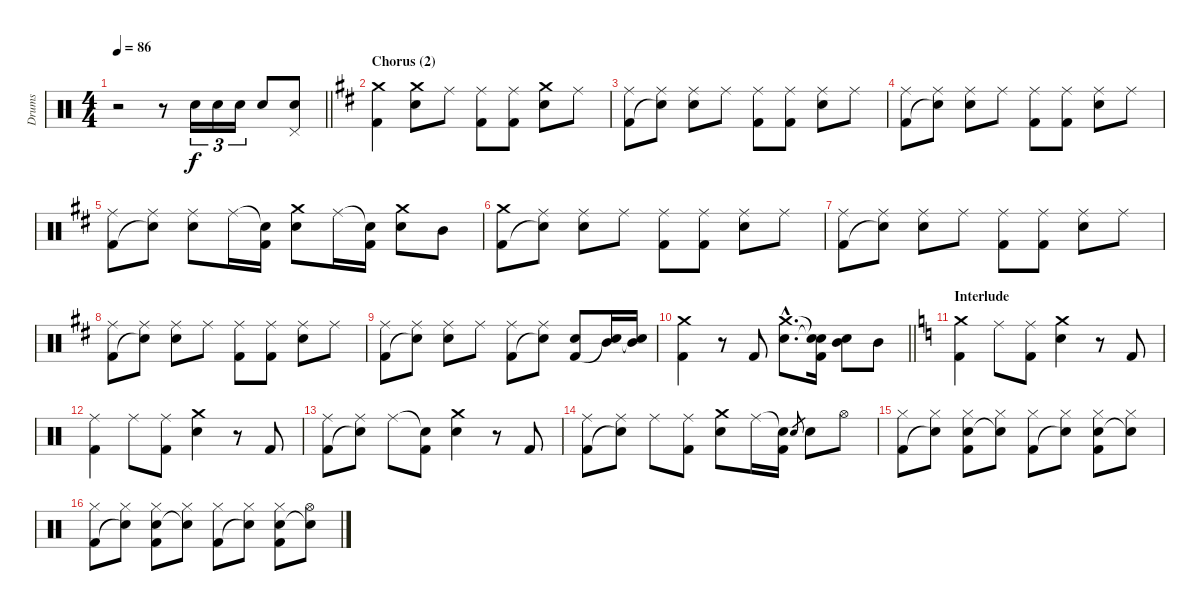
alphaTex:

\track ("Drums" "Drums") {instrument percussion}
\staff {score}
\articulation defaults
\ts (4 4)
\tempo 86
\clef neutral
\barLineRight lightlight
\ks aminor
r.2{dy f} r.8 "Electric Snare (hit)".16{tu (3 2)} "Electric Snare (hit)".16{tu (3 2)} "Electric Snare (hit)".16{tu (3 2)} "Electric Snare (hit)".8 ("Pedal Hi-Hat (hit)" "Snare (hit)"{t}).8 |
\section ("" "Chorus (2)")
\ks bminor
("Crash medium (hit)" "Kick (hit) 2").4 ("Crash medium (hit)" "Electric Snare (hit)").8 "Ride (middle)".8 ("Ride (middle)" "Kick (hit) 2").8 ("Ride (middle)" "Kick (hit) 2").8 ("Crash medium (hit)" "Electric Snare (hit)").8 "Ride (middle)".8 |
("Ride (middle)" "Kick (hit) 2").8 ("Ride (middle)" "Snare (hit)"{t}).8 ("Ride (middle)" "Electric Snare (hit)").8 "Ride (middle)".8 ("Ride (middle)" "Kick (hit) 2").8 ("Ride (middle)" "Kick (hit) 2").8 ("Ride (middle)" "Electric Snare (hit)").8 "Ride (middle)".8 |
("Ride (middle)" "Kick (hit) 2").8 ("Ride (middle)" "Snare (hit)"{t}).8 ("Ride (middle)" "Electric Snare (hit)").8 "Ride (middle)".8 ("Ride (middle)" "Kick (hit) 2").8 ("Ride (middle)" "Kick (hit) 2").8 ("Ride (middle)" "Electric Snare (hit)").8 "Ride (middle)".8 |
("Ride (middle)" "Kick (hit) 2").8 ("Ride (middle)" "Snare (hit)"{t}).8 ("Ride (middle)" "Electric Snare (hit)").8 "Ride (middle)".16 ("Snare (hit)"{t} "Kick (hit) 2").16 ("Crash medium (hit)" "Electric Snare (hit)").8 "Ride (middle)".16 ("Snare (hit)"{t} "Kick (hit) 2").16 ("Crash medium (hit)" "Electric Snare (hit)").8 "Mid Tom (hit)".8 |
("Crash medium (hit)" "Kick (hit) 2").8 ("Ride (middle)" "Snare (hit)"{t}).8 ("Ride (middle)" "Electric Snare (hit)").8 "Ride (middle)".8 ("Ride (middle)" "Kick (hit) 2").8 ("Ride (middle)" "Kick (hit) 2").8 ("Ride (middle)" "Electric Snare (hit)").8 "Ride (middle)".8 |
("Ride (middle)" "Kick (hit) 2").8 ("Ride (middle)" "Snare (hit)"{t}).8 ("Ride (middle)" "Electric Snare (hit)").8 "Ride (middle)".8 ("Ride (middle)" "Kick (hit) 2").8 ("Ride (middle)" "Kick (hit) 2").8 ("Ride (middle)" "Electric Snare (hit)").8 "Ride (middle)".8 |
("Ride (middle)" "Kick (hit) 2").8 ("Ride (middle)" "Snare (hit)"{t}).8 ("Ride (middle)" "Electric Snare (hit)").8 "Ride (middle)".8 ("Ride (middle)" "Kick (hit) 2").8 ("Ride (middle)" "Kick (hit) 2").8 ("Ride (middle)" "Electric Snare (hit)").8 "Ride (middle)".8 |
("Ride (middle)" "Kick (hit) 2").8 ("Ride (middle)" "Snare (hit)"{t}).8 ("Ride (middle)" "Electric Snare (hit)").8 "Ride (middle)".8 ("Ride (middle)" "Kick (hit) 2").8 ("Ride (middle)" "Snare (hit)"{t}).8 ("Electric Snare (hit)" "Kick (hit) 2").8 ("Mid Tom (hit)" "Snare (hit)"{t}).16 ("Mid Tom (hit)" "Snare (hit)"{t}).16 |
\barLineRight lightlight
("Crash medium (hit)" "Kick (hit) 2").4 r.8 "Kick (hit) 2".8 ("Crash medium (hit)"{hac} "Electric Snare (hit)"{hac}).8{d} ("Snare (hit)"{t} "Snare (hit)"{t} "Kick (hit) 2").16 ("Electric Snare (hit)" "Mid Tom (hit)").8 "Mid Tom (hit)".8 |
\section ("" "Interlude")
\ks aminor
("Crash medium (hit)" "Kick (hit) 2").4 "Ride (middle)".8 ("Ride (middle)" "Kick (hit) 2").8 ("Crash medium (hit)" "Electric Snare (hit)").4 r.8 "Kick (hit) 2".8 |
("Ride (middle)" "Kick (hit) 2").4 "Ride (middle)".8 ("Ride (middle)" "Kick (hit) 2").8 ("Crash medium (hit)" "Electric Snare (hit)").4 r.8 "Kick (hit) 2".8 |
("Ride (middle)" "Kick (hit) 2").8 ("Ride (middle)" "Snare (hit)"{t}).8 "Ride (middle)".8 ("Snare (hit)"{t} "Kick (hit) 2").8 ("Crash medium (hit)" "Electric Snare (hit)").4 r.8 "Kick (hit) 2".8 |
("Ride (middle)" "Kick (hit) 2").8 ("Ride (middle)" "Snare (hit)"{t}).8 "Ride (middle)".8 ("Ride (middle)" "Kick (hit) 2").8 ("Crash medium (hit)" "Electric Snare (hit)").8 "Ride (middle)".16 ("Snare (hit)"{t} "Kick (hit) 2").16 "Electric Snare (hit)".8{gr} "Electric Snare (hit)".8 "Hi-Hat (open)".8 |
("Hi-Hat (closed)" "Kick (hit) 2").8 ("Hi-Hat (closed)" "Snare (hit)"{t}).8 ("Hi-Hat (closed)" "Electric Snare (hit)" "Kick (hit) 2").8 ("Hi-Hat (closed)" "Snare (hit)"{t}).8 ("Hi-Hat (closed)" "Kick (hit) 2").8 ("Hi-Hat (closed)" "Snare (hit)"{t}).8 ("Hi-Hat (closed)" "Electric Snare (hit)" "Kick (hit) 2").8 ("Hi-Hat (closed)" "Snare (hit)"{t}).8 |
("Hi-Hat (closed)" "Kick (hit) 2").8 ("Hi-Hat (closed)" "Snare (hit)"{t}).8 ("Hi-Hat (closed)" "Electric Snare (hit)" "Kick (hit) 2").8 ("Hi-Hat (closed)" "Snare (hit)"{t}).8 ("Hi-Hat (closed)" "Kick (hit) 2").8 ("Hi-Hat (closed)" "Snare (hit)"{t}).8 ("Hi-Hat (closed)" "Electric Snare (hit)" "Kick (hit) 2").8 ("Hi-Hat (open)" "Snare (hit)"{t}).8
